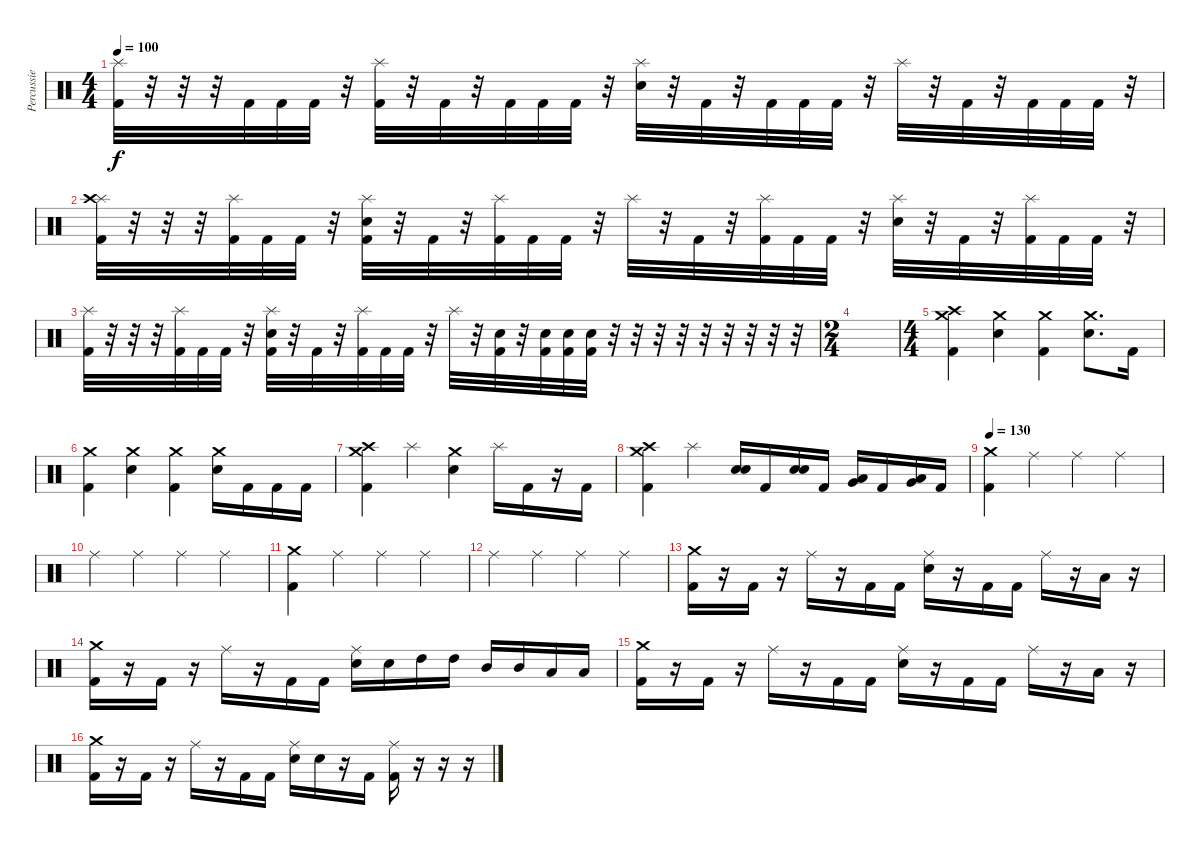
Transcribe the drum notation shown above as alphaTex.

\track ("Percussie" "Percussie") {instrument percussion}
\staff {score}
\articulation defaults
\ts (4 4)
\tempo 100
\clef neutral
\ks c
("Splash (hit)" "Kick (hit) 2").32{dy f} r.32 r.32 r.32 "Kick (hit) 2".32 "Kick (hit) 2".32 "Kick (hit) 2".32 r.32 ("Splash (hit)" "Kick (hit) 2").32 r.32 "Kick (hit) 2".32 r.32 "Kick (hit) 2".32 "Kick (hit) 2".32 "Kick (hit) 2".32 r.32 ("Splash (hit)" "Electric Snare (hit)").32 r.32 "Kick (hit) 2".32 r.32 "Kick (hit) 2".32 "Kick (hit) 2".32 "Kick (hit) 2".32 r.32 "Splash (hit)".32 r.32 "Kick (hit) 2".32 r.32 "Kick (hit) 2".32 "Kick (hit) 2".32 "Kick (hit) 2".32 r.32 |
("Splash (hit)" "Crash high (hit)" "Kick (hit) 2").32 r.32 r.32 r.32 ("Splash (hit)" "Kick (hit) 2").32 "Kick (hit) 2".32 "Kick (hit) 2".32 r.32 ("Splash (hit)" "Electric Snare (hit)" "Kick (hit) 2").32 r.32 "Kick (hit) 2".32 r.32 ("Splash (hit)" "Kick (hit) 2").32 "Kick (hit) 2".32 "Kick (hit) 2".32 r.32 "Splash (hit)".32 r.32 "Kick (hit) 2".32 r.32 ("Splash (hit)" "Kick (hit) 2").32 "Kick (hit) 2".32 "Kick (hit) 2".32 r.32 ("Splash (hit)" "Electric Snare (hit)").32 r.32 "Kick (hit) 2".32 r.32 ("Splash (hit)" "Kick (hit) 2").32 "Kick (hit) 2".32 "Kick (hit) 2".32 r.32 |
("Splash (hit)" "Kick (hit) 2").32 r.32 r.32 r.32 ("Splash (hit)" "Kick (hit) 2").32 "Kick (hit) 2".32 "Kick (hit) 2".32 r.32 ("Splash (hit)" "Electric Snare (hit)" "Kick (hit) 2").32 r.32 "Kick (hit) 2".32 r.32 ("Splash (hit)" "Kick (hit) 2").32 "Kick (hit) 2".32 "Kick (hit) 2".32 r.32 "Splash (hit)".32 r.32 ("Electric Snare (hit)" "Kick (hit) 2").32 r.32 ("Electric Snare (hit)" "Kick (hit) 2").32 ("Electric Snare (hit)" "Kick (hit) 2").32 ("Electric Snare (hit)" "Kick (hit) 2").32 r.32 r.32 r.32 r.32 r.32 r.32 r.32 r.32 r.32 |
\ts (2 4)
|
\ts (4 4)
("Crash high (hit)" "Crash medium (hit)" "Kick (hit) 2").4 ("Crash medium (hit)" "Electric Snare (hit)").4 ("Crash medium (hit)" "Kick (hit) 2").4 ("Crash medium (hit)" "Electric Snare (hit)").8{d} "Kick (hit) 2".16 |
("Crash medium (hit)" "Kick (hit) 2").4 ("Crash medium (hit)" "Electric Snare (hit)").4 ("Crash medium (hit)" "Kick (hit) 2").4 ("Crash medium (hit)" "Electric Snare (hit)").16 "Kick (hit) 2".16 "Kick (hit) 2".16 "Kick (hit) 2".16 |
("Crash high (hit)" "Crash medium (hit)" "Kick (hit) 2").4 "Splash (hit)".4 ("Crash medium (hit)" "Electric Snare (hit)").4 "Splash (hit)".16 "Kick (hit) 2".16 r.16 "Kick (hit) 2".16 |
("Crash high (hit)" "Crash medium (hit)" "Kick (hit) 2").4 "Splash (hit)".4 ("Electric Snare (hit)" "Electric Snare (hit)").16{bd 60} "Kick (hit) 2".16 ("Electric Snare (hit)" "Electric Snare (hit)").16{bd 60} "Kick (hit) 2".16 ("Low Tom (hit)" "Very Low Tom (hit)").16{bd 60} "Kick (hit) 2".16 ("Low Tom (hit)" "Very Low Tom (hit)").16{bd 60} "Kick (hit) 2".16 |
\tempo 130
("Crash medium (hit)" "Kick (hit) 2").4 "Ride (middle)".4 "Ride (middle)".4 "Ride (middle)".4 |
"Ride (middle)".4 "Ride (middle)".4 "Ride (middle)".4 "Ride (middle)".4 |
("Crash medium (hit)" "Kick (hit) 2").4 "Ride (middle)".4 "Ride (middle)".4 "Ride (middle)".4 |
"Ride (middle)".4 "Ride (middle)".4 "Ride (middle)".4 "Ride (middle)".4 |
("Crash medium (hit)" "Kick (hit) 2").16 r.16 "Kick (hit) 2".16 r.16 "Ride (middle)".16 r.16 "Kick (hit) 2".16 "Kick (hit) 2".16 ("Ride (middle)" "Electric Snare (hit)").16 r.16 "Kick (hit) 2".16 "Kick (hit) 2".16 "Ride (middle)".16 r.16 "Low Tom (hit)".16 r.16 |
("Crash medium (hit)" "Kick (hit) 2").16 r.16 "Kick (hit) 2".16 r.16 "Ride (middle)".16 r.16 "Kick (hit) 2".16 "Kick (hit) 2".16 ("Ride (middle)" "Electric Snare (hit)").16 "Electric Snare (hit)".16 "High Tom (hit)".16 "High Tom (hit)".16 "Mid Tom (hit)".16 "Mid Tom (hit)".16 "Low Tom (hit)".16 "Low Tom (hit)".16 |
("Crash medium (hit)" "Kick (hit) 2").16 r.16 "Kick (hit) 2".16 r.16 "Ride (middle)".16 r.16 "Kick (hit) 2".16 "Kick (hit) 2".16 ("Ride (middle)" "Electric Snare (hit)").16 r.16 "Kick (hit) 2".16 "Kick (hit) 2".16 "Ride (middle)".16 r.16 "Low Tom (hit)".16 r.16 |
("Crash medium (hit)" "Kick (hit) 2").16 r.16 "Kick (hit) 2".16 r.16 "Ride (middle)".16 r.16 "Kick (hit) 2".16 "Kick (hit) 2".16 ("Ride (middle)" "Electric Snare (hit)").16 "Electric Snare (hit)".16 r.16 "Kick (hit) 2".16 ("Ride (middle)" "Kick (hit) 2").16 r.16 r.16 r.16
